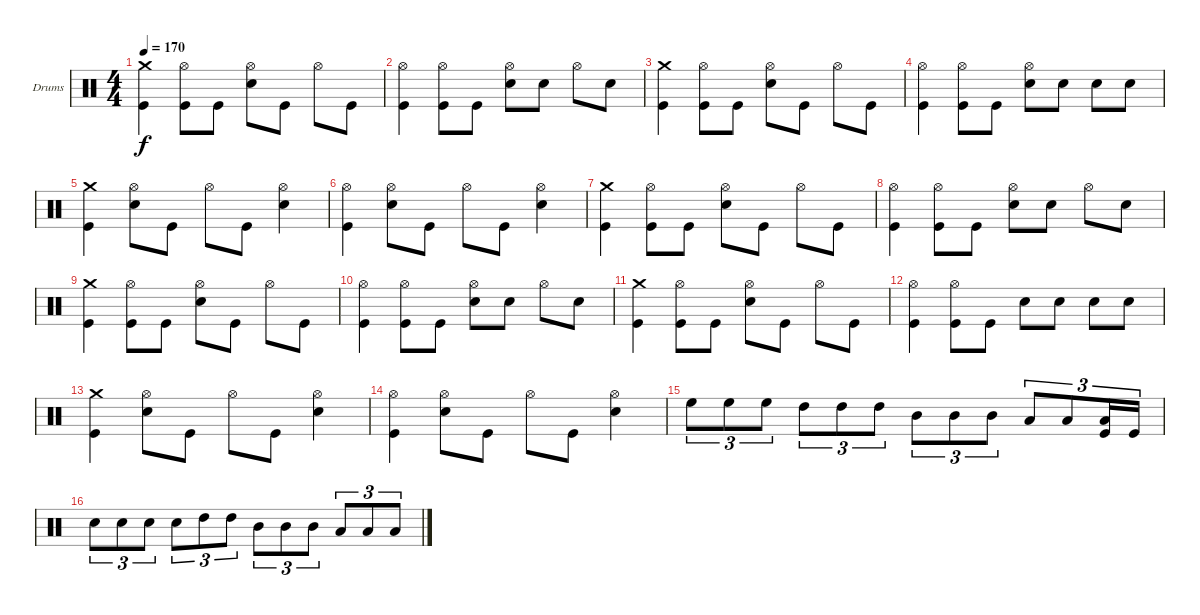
\bracketExtendMode groupsimilarinstruments
\firstSystemTrackNameOrientation horizontal
\otherSystemsTrackNameOrientation horizontal
\track ("Дмитрий Кривенков" "Drums") {instrument percussion}
\staff {score}
\articulation defaults
\ts (4 4)
\tempo 170
\clef neutral
\ks c
("Crash medium (hit)" "Kick (hit)").4{dy f} ("Hi-Hat (open)" "Kick (hit)").8 "Kick (hit)".8 ("Hi-Hat (open)" "Snare (hit) 2").8 "Kick (hit)".8 "Hi-Hat (open)".8 "Kick (hit)".8 |
("Hi-Hat (open)" "Kick (hit)").4 ("Hi-Hat (open)" "Kick (hit)").8 "Kick (hit)".8 ("Hi-Hat (open)" "Snare (hit) 2").8 "Snare (hit) 2".8 "Hi-Hat (open)".8 "Snare (hit) 2".8 |
("Crash medium (hit)" "Kick (hit)").4 ("Hi-Hat (open)" "Kick (hit)").8 "Kick (hit)".8 ("Hi-Hat (open)" "Snare (hit) 2").8 "Kick (hit)".8 "Hi-Hat (open)".8 "Kick (hit)".8 |
("Hi-Hat (open)" "Kick (hit)").4 ("Hi-Hat (open)" "Kick (hit)").8 "Kick (hit)".8 ("Hi-Hat (open)" "Snare (hit) 2").8 "Snare (hit) 2".8 "Snare (hit) 2".8 "Snare (hit) 2".8 |
("Crash medium (hit)" "Kick (hit)").4 ("Hi-Hat (open)" "Snare (hit) 2").8 "Kick (hit)".8 "Hi-Hat (open)".8 "Kick (hit)".8 ("Hi-Hat (open)" "Snare (hit) 2").4 |
("Hi-Hat (open)" "Kick (hit)").4 ("Hi-Hat (open)" "Snare (hit) 2").8 "Kick (hit)".8 "Hi-Hat (open)".8 "Kick (hit)".8 ("Hi-Hat (open)" "Snare (hit) 2").4 |
("Crash medium (hit)" "Kick (hit)").4 ("Hi-Hat (open)" "Kick (hit)").8 "Kick (hit)".8 ("Hi-Hat (open)" "Snare (hit) 2").8 "Kick (hit)".8 "Hi-Hat (open)".8 "Kick (hit)".8 |
("Hi-Hat (open)" "Kick (hit)").4 ("Hi-Hat (open)" "Kick (hit)").8 "Kick (hit)".8 ("Hi-Hat (open)" "Snare (hit) 2").8 "Snare (hit) 2".8 "Hi-Hat (open)".8 "Snare (hit) 2".8 |
("Crash medium (hit)" "Kick (hit)").4 ("Hi-Hat (open)" "Kick (hit)").8 "Kick (hit)".8 ("Hi-Hat (open)" "Snare (hit) 2").8 "Kick (hit)".8 "Hi-Hat (open)".8 "Kick (hit)".8 |
("Hi-Hat (open)" "Kick (hit)").4 ("Hi-Hat (open)" "Kick (hit)").8 "Kick (hit)".8 ("Hi-Hat (open)" "Snare (hit) 2").8 "Snare (hit) 2".8 "Hi-Hat (open)".8 "Snare (hit) 2".8 |
("Crash medium (hit)" "Kick (hit)").4 ("Hi-Hat (open)" "Kick (hit)").8 "Kick (hit)".8 ("Hi-Hat (open)" "Snare (hit) 2").8 "Kick (hit)".8 "Hi-Hat (open)".8 "Kick (hit)".8 |
("Hi-Hat (open)" "Kick (hit)").4 ("Hi-Hat (open)" "Kick (hit)").8 "Kick (hit)".8 "Snare (hit) 2".8 "Snare (hit) 2".8 "Snare (hit) 2".8 "Snare (hit) 2".8 |
("Crash medium (hit)" "Kick (hit)").4 ("Hi-Hat (open)" "Snare (hit) 2").8 "Kick (hit)".8 "Hi-Hat (open)".8 "Kick (hit)".8 ("Hi-Hat (open)" "Snare (hit) 2").4 |
("Hi-Hat (open)" "Kick (hit)").4 ("Hi-Hat (open)" "Snare (hit) 2").8 "Kick (hit)".8 "Hi-Hat (open)".8 "Kick (hit)".8 ("Hi-Hat (open)" "Snare (hit) 2").4 |
"High Floor Tom (hit)".8{tu (3 2)} "High Floor Tom (hit)".8{tu (3 2)} "High Floor Tom (hit)".8{tu (3 2)} "High Tom (hit)".8{tu (3 2)} "High Tom (hit)".8{tu (3 2)} "High Tom (hit)".8{tu (3 2)} "Mid Tom (hit)".8{tu (3 2)} "Mid Tom (hit)".8{tu (3 2)} "Mid Tom (hit)".8{tu (3 2)} "Low Tom (hit)".8{tu (3 2)} "Low Tom (hit)".8{tu (3 2)} ("Low Tom (hit)" "Kick (hit)").16{tu (3 2)} "Kick (hit)".16{tu (3 2)} |
"Snare (hit) 2".8{tu (3 2)} "Snare (hit) 2".8{tu (3 2)} "Snare (hit) 2".8{tu (3 2)} "Snare (hit) 2".8{tu (3 2)} "High Tom (hit)".8{tu (3 2)} "High Tom (hit)".8{tu (3 2)} "Mid Tom (hit)".8{tu (3 2)} "Mid Tom (hit)".8{tu (3 2)} "Mid Tom (hit)".8{tu (3 2)} "Low Tom (hit)".8{tu (3 2)} "Low Tom (hit)".8{tu (3 2)} "Low Tom (hit)".8{tu (3 2)}
